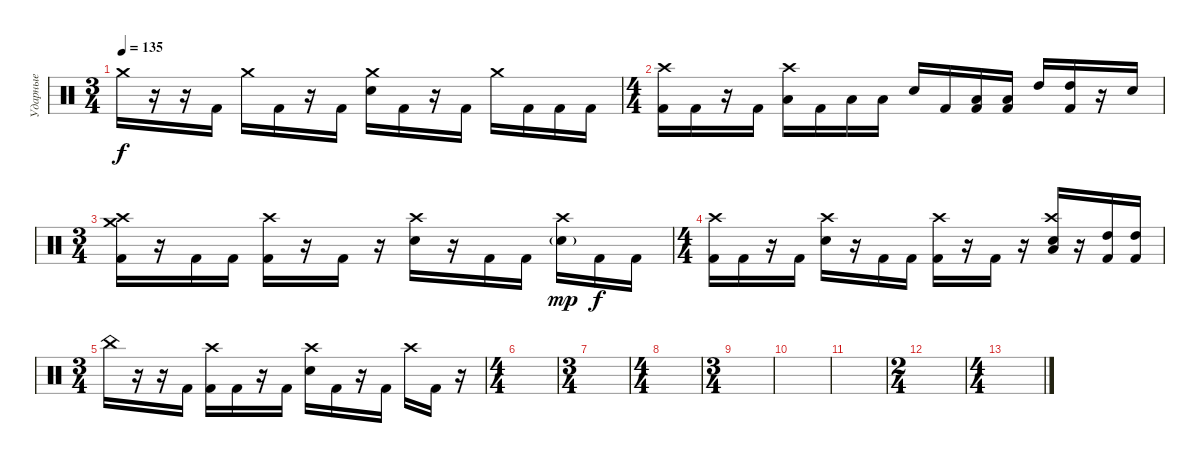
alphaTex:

\track ("Ударные" "Ударные") {instrument percussion}
\staff {score}
\articulation defaults
\ts (3 4)
\tempo 135
\clef neutral
\ks c "Crash medium (hit)".16{dy f}
r.16 r.16 "Kick (hit) 2".16 "Crash medium (hit)".16 "Kick (hit) 2".16 r.16 "Kick (hit) 2".16 ("Crash medium (hit)" "Electric Snare (hit)").16 "Kick (hit) 2".16 r.16 "Kick (hit) 2".16 "Crash medium (hit)".16 "Kick (hit) 2".16 "Kick (hit) 2".16 "Kick (hit) 2".16 |
\ts (4 4)
("Crash high (hit)" "Kick (hit) 2").16 "Kick (hit) 2".16 r.16 "Kick (hit) 2".16 ("Crash high (hit)" "Low Floor Tom (hit)").16 "Kick (hit) 2".16 "Low Tom (hit)".16 "Low Tom (hit)".16 "Electric Snare (hit)".16 "Kick (hit) 2".16 ("Low Floor Tom (hit)" "Kick (hit) 2").16 ("Low Floor Tom (hit)" "Kick (hit) 2").16 "High Tom (hit)".16 ("High Tom (hit)" "Kick (hit) 2").16 r.16 "Snare (hit) 2".16 |
\ts (3 4)
("Crash high (hit)" "Crash medium (hit)" "Kick (hit) 2").16 r.16 "Kick (hit) 2".16 "Kick (hit) 2".16 ("Crash high (hit)" "Kick (hit) 2").16 r.16 "Kick (hit) 2".16 r.16 ("Crash high (hit)" "Electric Snare (hit)").16 r.16 "Kick (hit) 2".16 "Kick (hit) 2".16 ("Crash high (hit)" "Electric Snare (hit)"{g}).16{dy mp} "Kick (hit) 2".16{dy f} "Kick (hit) 2".16 |
\ts (4 4)
("Crash high (hit)" "Kick (hit) 2").16 "Kick (hit) 2".16 r.16 "Kick (hit) 2".16 ("Crash high (hit)" "Electric Snare (hit)").16 r.16 "Kick (hit) 2".16 "Kick (hit) 2".16 ("Crash high (hit)" "Kick (hit) 2").16 r.16 "Kick (hit) 2".16 r.16 ("Crash high (hit)" "Low Floor Tom (hit)" "Electric Snare (hit)").16 r.16 ("High Tom (hit)" "Kick (hit) 2").16 ("High Tom (hit)" "Kick (hit) 2").16 |
\ts (3 4)
"China (hit)".16 r.16 r.16 "Kick (hit) 2".16 ("Crash high (hit)" "Kick (hit) 2").16 "Kick (hit) 2".16 r.16 "Kick (hit) 2".16 ("Crash high (hit)" "Electric Snare (hit)").16 "Kick (hit) 2".16 r.16 "Kick (hit) 2".16 "Crash high (hit)".16 "Kick (hit) 2".16 r.16 |
\ts (4 4)
|
\ts (3 4)
|
\ts (4 4)
|
\ts (3 4)
|
|
|
\ts (2 4)
|
\ts (4 4)
